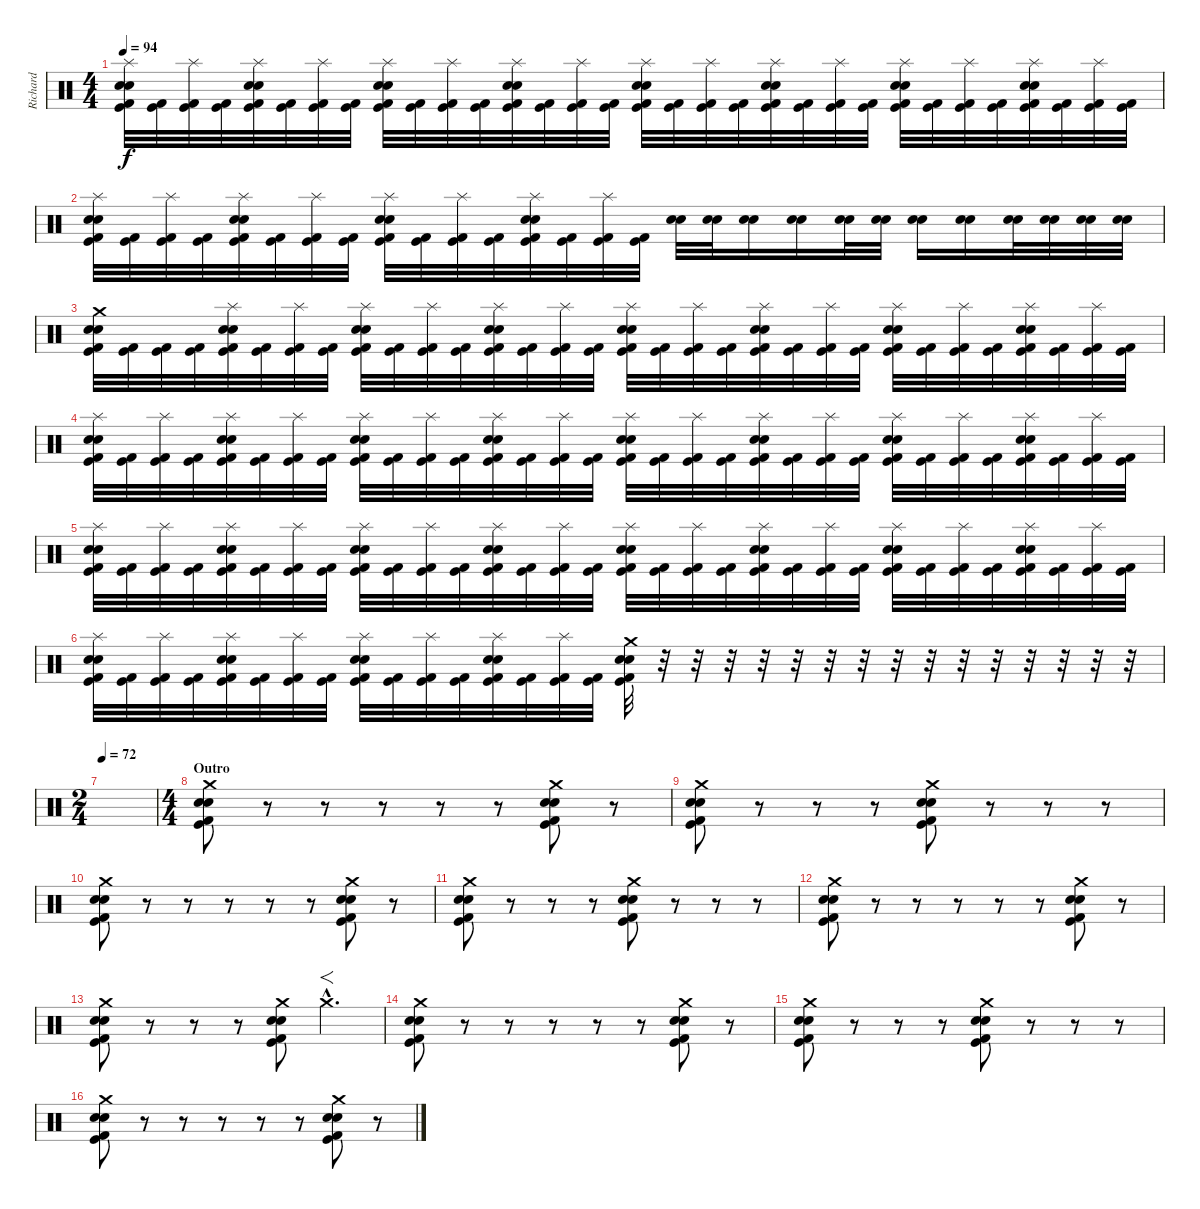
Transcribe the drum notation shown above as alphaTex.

\track ("Richard" "Richard") {instrument percussion}
\staff {score}
\articulation defaults
\ts (4 4)
\tempo 94
\clef neutral
\ks c
("Splash (hit)" "Snare (hit) 2" "Electric Snare (hit)" "Kick (hit)" "Kick (hit) 2").32{dy f} ("Kick (hit)" "Kick (hit) 2").32 ("Splash (hit)" "Kick (hit)" "Kick (hit) 2").32 ("Kick (hit)" "Kick (hit) 2").32 ("Splash (hit)" "Snare (hit) 2" "Electric Snare (hit)" "Kick (hit)" "Kick (hit) 2").32 ("Kick (hit)" "Kick (hit) 2").32 ("Splash (hit)" "Kick (hit)" "Kick (hit) 2").32 ("Kick (hit)" "Kick (hit) 2").32 ("Splash (hit)" "Snare (hit) 2" "Electric Snare (hit)" "Kick (hit)" "Kick (hit) 2").32 ("Kick (hit)" "Kick (hit) 2").32 ("Splash (hit)" "Kick (hit)" "Kick (hit) 2").32 ("Kick (hit)" "Kick (hit) 2").32 ("Splash (hit)" "Snare (hit) 2" "Electric Snare (hit)" "Kick (hit)" "Kick (hit) 2").32 ("Kick (hit)" "Kick (hit) 2").32 ("Splash (hit)" "Kick (hit)" "Kick (hit) 2").32 ("Kick (hit)" "Kick (hit) 2").32 ("Splash (hit)" "Snare (hit) 2" "Electric Snare (hit)" "Kick (hit)" "Kick (hit) 2").32 ("Kick (hit)" "Kick (hit) 2").32 ("Splash (hit)" "Kick (hit)" "Kick (hit) 2").32 ("Kick (hit)" "Kick (hit) 2").32 ("Splash (hit)" "Snare (hit) 2" "Electric Snare (hit)" "Kick (hit)" "Kick (hit) 2").32 ("Kick (hit)" "Kick (hit) 2").32 ("Splash (hit)" "Kick (hit)" "Kick (hit) 2").32 ("Kick (hit)" "Kick (hit) 2").32 ("Splash (hit)" "Snare (hit) 2" "Electric Snare (hit)" "Kick (hit)" "Kick (hit) 2").32 ("Kick (hit)" "Kick (hit) 2").32 ("Splash (hit)" "Kick (hit)" "Kick (hit) 2").32 ("Kick (hit)" "Kick (hit) 2").32 ("Splash (hit)" "Snare (hit) 2" "Electric Snare (hit)" "Kick (hit)" "Kick (hit) 2").32 ("Kick (hit)" "Kick (hit) 2").32 ("Splash (hit)" "Kick (hit)" "Kick (hit) 2").32 ("Kick (hit)" "Kick (hit) 2").32 |
("Splash (hit)" "Snare (hit) 2" "Electric Snare (hit)" "Kick (hit)" "Kick (hit) 2").32 ("Kick (hit)" "Kick (hit) 2").32 ("Splash (hit)" "Kick (hit)" "Kick (hit) 2").32 ("Kick (hit)" "Kick (hit) 2").32 ("Splash (hit)" "Snare (hit) 2" "Electric Snare (hit)" "Kick (hit)" "Kick (hit) 2").32 ("Kick (hit)" "Kick (hit) 2").32 ("Splash (hit)" "Kick (hit)" "Kick (hit) 2").32 ("Kick (hit)" "Kick (hit) 2").32 ("Splash (hit)" "Snare (hit) 2" "Electric Snare (hit)" "Kick (hit)" "Kick (hit) 2").32 ("Kick (hit)" "Kick (hit) 2").32 ("Splash (hit)" "Kick (hit)" "Kick (hit) 2").32 ("Kick (hit)" "Kick (hit) 2").32 ("Splash (hit)" "Snare (hit) 2" "Electric Snare (hit)" "Kick (hit)" "Kick (hit) 2").32 ("Kick (hit)" "Kick (hit) 2").32 ("Splash (hit)" "Kick (hit)" "Kick (hit) 2").32 ("Kick (hit)" "Kick (hit) 2").32 ("Snare (hit) 2" "Electric Snare (hit)").32 ("Snare (hit) 2" "Electric Snare (hit)").32 ("Snare (hit) 2" "Electric Snare (hit)").16 ("Snare (hit) 2" "Electric Snare (hit)").16 ("Snare (hit) 2" "Electric Snare (hit)").32 ("Snare (hit) 2" "Electric Snare (hit)").32 ("Snare (hit) 2" "Electric Snare (hit)").16 ("Snare (hit) 2" "Electric Snare (hit)").16 ("Snare (hit) 2" "Electric Snare (hit)").32 ("Snare (hit) 2" "Electric Snare (hit)").32 ("Snare (hit) 2" "Electric Snare (hit)").32 ("Snare (hit) 2" "Electric Snare (hit)").32 |
("Crash medium (hit)" "Snare (hit) 2" "Electric Snare (hit)" "Kick (hit)" "Kick (hit) 2").32 ("Kick (hit)" "Kick (hit) 2").32 ("Kick (hit)" "Kick (hit) 2").32 ("Kick (hit)" "Kick (hit) 2").32 ("Splash (hit)" "Snare (hit) 2" "Electric Snare (hit)" "Kick (hit)" "Kick (hit) 2").32 ("Kick (hit)" "Kick (hit) 2").32 ("Splash (hit)" "Kick (hit)" "Kick (hit) 2").32 ("Kick (hit)" "Kick (hit) 2").32 ("Splash (hit)" "Snare (hit) 2" "Electric Snare (hit)" "Kick (hit)" "Kick (hit) 2").32 ("Kick (hit)" "Kick (hit) 2").32 ("Splash (hit)" "Kick (hit)" "Kick (hit) 2").32 ("Kick (hit)" "Kick (hit) 2").32 ("Splash (hit)" "Snare (hit) 2" "Electric Snare (hit)" "Kick (hit)" "Kick (hit) 2").32 ("Kick (hit)" "Kick (hit) 2").32 ("Splash (hit)" "Kick (hit)" "Kick (hit) 2").32 ("Kick (hit)" "Kick (hit) 2").32 ("Splash (hit)" "Snare (hit) 2" "Electric Snare (hit)" "Kick (hit)" "Kick (hit) 2").32 ("Kick (hit)" "Kick (hit) 2").32 ("Splash (hit)" "Kick (hit)" "Kick (hit) 2").32 ("Kick (hit)" "Kick (hit) 2").32 ("Splash (hit)" "Snare (hit) 2" "Electric Snare (hit)" "Kick (hit)" "Kick (hit) 2").32 ("Kick (hit)" "Kick (hit) 2").32 ("Splash (hit)" "Kick (hit)" "Kick (hit) 2").32 ("Kick (hit)" "Kick (hit) 2").32 ("Splash (hit)" "Snare (hit) 2" "Electric Snare (hit)" "Kick (hit)" "Kick (hit) 2").32 ("Kick (hit)" "Kick (hit) 2").32 ("Splash (hit)" "Kick (hit)" "Kick (hit) 2").32 ("Kick (hit)" "Kick (hit) 2").32 ("Splash (hit)" "Snare (hit) 2" "Electric Snare (hit)" "Kick (hit)" "Kick (hit) 2").32 ("Kick (hit)" "Kick (hit) 2").32 ("Splash (hit)" "Kick (hit)" "Kick (hit) 2").32 ("Kick (hit)" "Kick (hit) 2").32 |
("Splash (hit)" "Snare (hit) 2" "Electric Snare (hit)" "Kick (hit)" "Kick (hit) 2").32 ("Kick (hit)" "Kick (hit) 2").32 ("Splash (hit)" "Kick (hit)" "Kick (hit) 2").32 ("Kick (hit)" "Kick (hit) 2").32 ("Splash (hit)" "Snare (hit) 2" "Electric Snare (hit)" "Kick (hit)" "Kick (hit) 2").32 ("Kick (hit)" "Kick (hit) 2").32 ("Splash (hit)" "Kick (hit)" "Kick (hit) 2").32 ("Kick (hit)" "Kick (hit) 2").32 ("Splash (hit)" "Snare (hit) 2" "Electric Snare (hit)" "Kick (hit)" "Kick (hit) 2").32 ("Kick (hit)" "Kick (hit) 2").32 ("Splash (hit)" "Kick (hit)" "Kick (hit) 2").32 ("Kick (hit)" "Kick (hit) 2").32 ("Splash (hit)" "Snare (hit) 2" "Electric Snare (hit)" "Kick (hit)" "Kick (hit) 2").32 ("Kick (hit)" "Kick (hit) 2").32 ("Splash (hit)" "Kick (hit)" "Kick (hit) 2").32 ("Kick (hit)" "Kick (hit) 2").32 ("Splash (hit)" "Snare (hit) 2" "Electric Snare (hit)" "Kick (hit)" "Kick (hit) 2").32 ("Kick (hit)" "Kick (hit) 2").32 ("Splash (hit)" "Kick (hit)" "Kick (hit) 2").32 ("Kick (hit)" "Kick (hit) 2").32 ("Splash (hit)" "Snare (hit) 2" "Electric Snare (hit)" "Kick (hit)" "Kick (hit) 2").32 ("Kick (hit)" "Kick (hit) 2").32 ("Splash (hit)" "Kick (hit)" "Kick (hit) 2").32 ("Kick (hit)" "Kick (hit) 2").32 ("Splash (hit)" "Snare (hit) 2" "Electric Snare (hit)" "Kick (hit)" "Kick (hit) 2").32 ("Kick (hit)" "Kick (hit) 2").32 ("Splash (hit)" "Kick (hit)" "Kick (hit) 2").32 ("Kick (hit)" "Kick (hit) 2").32 ("Splash (hit)" "Snare (hit) 2" "Electric Snare (hit)" "Kick (hit)" "Kick (hit) 2").32 ("Kick (hit)" "Kick (hit) 2").32 ("Splash (hit)" "Kick (hit)" "Kick (hit) 2").32 ("Kick (hit)" "Kick (hit) 2").32 |
("Splash (hit)" "Snare (hit) 2" "Electric Snare (hit)" "Kick (hit)" "Kick (hit) 2").32 ("Kick (hit)" "Kick (hit) 2").32 ("Splash (hit)" "Kick (hit)" "Kick (hit) 2").32 ("Kick (hit)" "Kick (hit) 2").32 ("Splash (hit)" "Snare (hit) 2" "Electric Snare (hit)" "Kick (hit)" "Kick (hit) 2").32 ("Kick (hit)" "Kick (hit) 2").32 ("Splash (hit)" "Kick (hit)" "Kick (hit) 2").32 ("Kick (hit)" "Kick (hit) 2").32 ("Splash (hit)" "Snare (hit) 2" "Electric Snare (hit)" "Kick (hit)" "Kick (hit) 2").32 ("Kick (hit)" "Kick (hit) 2").32 ("Splash (hit)" "Kick (hit)" "Kick (hit) 2").32 ("Kick (hit)" "Kick (hit) 2").32 ("Splash (hit)" "Snare (hit) 2" "Electric Snare (hit)" "Kick (hit)" "Kick (hit) 2").32 ("Kick (hit)" "Kick (hit) 2").32 ("Splash (hit)" "Kick (hit)" "Kick (hit) 2").32 ("Kick (hit)" "Kick (hit) 2").32 ("Splash (hit)" "Snare (hit) 2" "Electric Snare (hit)" "Kick (hit)" "Kick (hit) 2").32 ("Kick (hit)" "Kick (hit) 2").32 ("Splash (hit)" "Kick (hit)" "Kick (hit) 2").32 ("Kick (hit)" "Kick (hit) 2").32 ("Splash (hit)" "Snare (hit) 2" "Electric Snare (hit)" "Kick (hit)" "Kick (hit) 2").32 ("Kick (hit)" "Kick (hit) 2").32 ("Splash (hit)" "Kick (hit)" "Kick (hit) 2").32 ("Kick (hit)" "Kick (hit) 2").32 ("Splash (hit)" "Snare (hit) 2" "Electric Snare (hit)" "Kick (hit)" "Kick (hit) 2").32 ("Kick (hit)" "Kick (hit) 2").32 ("Splash (hit)" "Kick (hit)" "Kick (hit) 2").32 ("Kick (hit)" "Kick (hit) 2").32 ("Splash (hit)" "Snare (hit) 2" "Electric Snare (hit)" "Kick (hit)" "Kick (hit) 2").32 ("Kick (hit)" "Kick (hit) 2").32 ("Splash (hit)" "Kick (hit)" "Kick (hit) 2").32 ("Kick (hit)" "Kick (hit) 2").32 |
("Splash (hit)" "Snare (hit) 2" "Electric Snare (hit)" "Kick (hit)" "Kick (hit) 2").32 ("Kick (hit)" "Kick (hit) 2").32 ("Splash (hit)" "Kick (hit)" "Kick (hit) 2").32 ("Kick (hit)" "Kick (hit) 2").32 ("Splash (hit)" "Snare (hit) 2" "Electric Snare (hit)" "Kick (hit)" "Kick (hit) 2").32 ("Kick (hit)" "Kick (hit) 2").32 ("Splash (hit)" "Kick (hit)" "Kick (hit) 2").32 ("Kick (hit)" "Kick (hit) 2").32 ("Splash (hit)" "Snare (hit) 2" "Electric Snare (hit)" "Kick (hit)" "Kick (hit) 2").32 ("Kick (hit)" "Kick (hit) 2").32 ("Splash (hit)" "Kick (hit)" "Kick (hit) 2").32 ("Kick (hit)" "Kick (hit) 2").32 ("Splash (hit)" "Snare (hit) 2" "Electric Snare (hit)" "Kick (hit)" "Kick (hit) 2").32 ("Kick (hit)" "Kick (hit) 2").32 ("Splash (hit)" "Kick (hit)" "Kick (hit) 2").32 ("Kick (hit)" "Kick (hit) 2").32 ("Crash medium (hit)" "Snare (hit) 2" "Electric Snare (hit)" "Kick (hit)" "Kick (hit) 2").32 r.32 r.32 r.32 r.32 r.32 r.32 r.32 r.32 r.32 r.32 r.32 r.32 r.32 r.32 r.32 |
\ts (2 4)
\tempo 72
|
\ts (4 4)
\section ("" "Outro")
("Crash medium (hit)" "Snare (hit) 2" "Electric Snare (hit)" "Kick (hit)" "Kick (hit) 2").8 r.8 r.8 r.8 r.8 r.8 ("Crash medium (hit)" "Snare (hit) 2" "Electric Snare (hit)" "Kick (hit) 2" "Kick (hit)").8 r.8 |
("Crash medium (hit)" "Snare (hit) 2" "Electric Snare (hit)" "Kick (hit)" "Kick (hit) 2").8 r.8 r.8 r.8 ("Crash medium (hit)" "Snare (hit) 2" "Electric Snare (hit)" "Kick (hit)" "Kick (hit) 2").8 r.8 r.8 r.8 |
("Crash medium (hit)" "Snare (hit) 2" "Electric Snare (hit)" "Kick (hit)" "Kick (hit) 2").8 r.8 r.8 r.8 r.8 r.8 ("Crash medium (hit)" "Snare (hit) 2" "Electric Snare (hit)" "Kick (hit) 2" "Kick (hit)").8 r.8 |
("Crash medium (hit)" "Snare (hit) 2" "Electric Snare (hit)" "Kick (hit)" "Kick (hit) 2").8 r.8 r.8 r.8 ("Crash medium (hit)" "Snare (hit) 2" "Electric Snare (hit)" "Kick (hit)" "Kick (hit) 2").8 r.8 r.8 r.8 |
("Crash medium (hit)" "Snare (hit) 2" "Electric Snare (hit)" "Kick (hit)" "Kick (hit) 2").8 r.8 r.8 r.8 r.8 r.8 ("Crash medium (hit)" "Snare (hit) 2" "Electric Snare (hit)" "Kick (hit) 2" "Kick (hit)").8 r.8 |
("Crash medium (hit)" "Snare (hit) 2" "Electric Snare (hit)" "Kick (hit)" "Kick (hit) 2").8 r.8 r.8 r.8 ("Crash medium (hit)" "Snare (hit) 2" "Electric Snare (hit)" "Kick (hit)" "Kick (hit) 2").8 "Crash medium (hit)"{hac}.4{f d} |
("Crash medium (hit)" "Snare (hit) 2" "Electric Snare (hit)" "Kick (hit)" "Kick (hit) 2").8 r.8 r.8 r.8 r.8 r.8 ("Crash medium (hit)" "Snare (hit) 2" "Electric Snare (hit)" "Kick (hit) 2" "Kick (hit)").8 r.8 |
("Crash medium (hit)" "Snare (hit) 2" "Electric Snare (hit)" "Kick (hit)" "Kick (hit) 2").8 r.8 r.8 r.8 ("Crash medium (hit)" "Snare (hit) 2" "Electric Snare (hit)" "Kick (hit)" "Kick (hit) 2").8 r.8 r.8 r.8 |
("Crash medium (hit)" "Snare (hit) 2" "Electric Snare (hit)" "Kick (hit)" "Kick (hit) 2").8 r.8 r.8 r.8 r.8 r.8 ("Crash medium (hit)" "Snare (hit) 2" "Electric Snare (hit)" "Kick (hit) 2" "Kick (hit)").8 r.8
